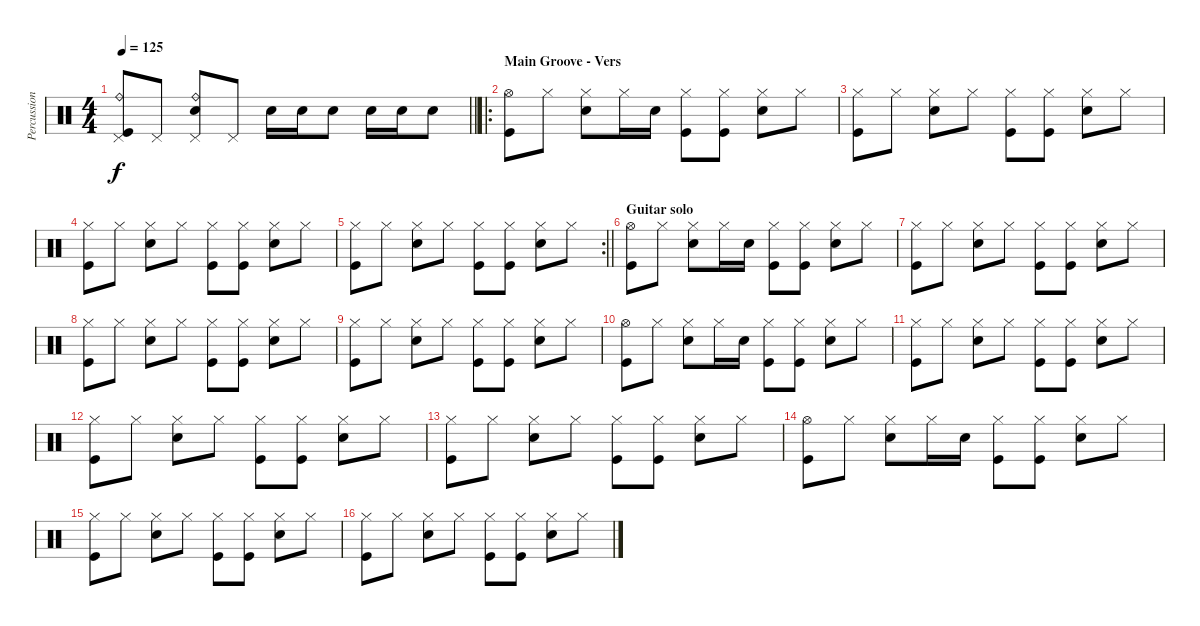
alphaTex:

\track ("Percussion" "Percussion") {instrument percussion}
\staff {score}
\articulation defaults
\ts (4 4)
\tempo 125
\clef neutral
\barLineRight lightlight
\ks c
("Ride (bell)" "Pedal Hi-Hat (hit)" "Kick (hit)").8{dy f} "Pedal Hi-Hat (hit)".8 ("Ride (bell)" "Electric Snare (hit)" "Pedal Hi-Hat (hit)").8 "Pedal Hi-Hat (hit)".8 "Electric Snare (hit)".16 "Electric Snare (hit)".16 "Electric Snare (hit)".8 "Electric Snare (hit)".16 "Electric Snare (hit)".16 "Electric Snare (hit)".8 |
\ro
\section ("" "Main Groove - Vers")
("Hi-Hat (open)" "Kick (hit)").8 "Hi-Hat (closed)".8 ("Electric Snare (hit)" "Hi-Hat (closed)").8 "Hi-Hat (closed)".16 "Electric Snare (hit)".16 ("Hi-Hat (closed)" "Kick (hit)").8 ("Hi-Hat (closed)" "Kick (hit)").8 ("Electric Snare (hit)" "Hi-Hat (closed)").8 "Hi-Hat (closed)".8 |
("Hi-Hat (closed)" "Kick (hit)").8 "Hi-Hat (closed)".8 ("Electric Snare (hit)" "Hi-Hat (closed)").8 "Hi-Hat (closed)".8 ("Hi-Hat (closed)" "Kick (hit)").8 ("Hi-Hat (closed)" "Kick (hit)").8 ("Electric Snare (hit)" "Hi-Hat (closed)").8 "Hi-Hat (closed)".8 |
("Hi-Hat (closed)" "Kick (hit)").8 "Hi-Hat (closed)".8 ("Electric Snare (hit)" "Hi-Hat (closed)").8 "Hi-Hat (closed)".8 ("Hi-Hat (closed)" "Kick (hit)").8 ("Hi-Hat (closed)" "Kick (hit)").8 ("Electric Snare (hit)" "Hi-Hat (closed)").8 "Hi-Hat (closed)".8 |
\rc 2
\barLineRight lightlight
("Hi-Hat (closed)" "Kick (hit)").8 "Hi-Hat (closed)".8 ("Electric Snare (hit)" "Hi-Hat (closed)").8 "Hi-Hat (closed)".8 ("Hi-Hat (closed)" "Kick (hit)").8 ("Hi-Hat (closed)" "Kick (hit)").8 ("Electric Snare (hit)" "Hi-Hat (closed)").8 "Hi-Hat (closed)".8 |
\section ("" "Guitar solo")
("Hi-Hat (open)" "Kick (hit)").8 "Hi-Hat (closed)".8 ("Electric Snare (hit)" "Hi-Hat (closed)").8 "Hi-Hat (closed)".16 "Electric Snare (hit)".16 ("Hi-Hat (closed)" "Kick (hit)").8 ("Hi-Hat (closed)" "Kick (hit)").8 ("Electric Snare (hit)" "Hi-Hat (closed)").8 "Hi-Hat (closed)".8 |
("Hi-Hat (closed)" "Kick (hit)").8 "Hi-Hat (closed)".8 ("Electric Snare (hit)" "Hi-Hat (closed)").8 "Hi-Hat (closed)".8 ("Hi-Hat (closed)" "Kick (hit)").8 ("Hi-Hat (closed)" "Kick (hit)").8 ("Electric Snare (hit)" "Hi-Hat (closed)").8 "Hi-Hat (closed)".8 |
("Hi-Hat (closed)" "Kick (hit)").8 "Hi-Hat (closed)".8 ("Electric Snare (hit)" "Hi-Hat (closed)").8 "Hi-Hat (closed)".8 ("Hi-Hat (closed)" "Kick (hit)").8 ("Hi-Hat (closed)" "Kick (hit)").8 ("Electric Snare (hit)" "Hi-Hat (closed)").8 "Hi-Hat (closed)".8 |
("Hi-Hat (closed)" "Kick (hit)").8 "Hi-Hat (closed)".8 ("Electric Snare (hit)" "Hi-Hat (closed)").8 "Hi-Hat (closed)".8 ("Hi-Hat (closed)" "Kick (hit)").8 ("Hi-Hat (closed)" "Kick (hit)").8 ("Electric Snare (hit)" "Hi-Hat (closed)").8 "Hi-Hat (closed)".8 |
("Hi-Hat (open)" "Kick (hit)").8 "Hi-Hat (closed)".8 ("Electric Snare (hit)" "Hi-Hat (closed)").8 "Hi-Hat (closed)".16 "Electric Snare (hit)".16 ("Hi-Hat (closed)" "Kick (hit)").8 ("Hi-Hat (closed)" "Kick (hit)").8 ("Electric Snare (hit)" "Hi-Hat (closed)").8 "Hi-Hat (closed)".8 |
("Hi-Hat (closed)" "Kick (hit)").8 "Hi-Hat (closed)".8 ("Electric Snare (hit)" "Hi-Hat (closed)").8 "Hi-Hat (closed)".8 ("Hi-Hat (closed)" "Kick (hit)").8 ("Hi-Hat (closed)" "Kick (hit)").8 ("Electric Snare (hit)" "Hi-Hat (closed)").8 "Hi-Hat (closed)".8 |
("Hi-Hat (closed)" "Kick (hit)").8 "Hi-Hat (closed)".8 ("Electric Snare (hit)" "Hi-Hat (closed)").8 "Hi-Hat (closed)".8 ("Hi-Hat (closed)" "Kick (hit)").8 ("Hi-Hat (closed)" "Kick (hit)").8 ("Electric Snare (hit)" "Hi-Hat (closed)").8 "Hi-Hat (closed)".8 |
("Hi-Hat (closed)" "Kick (hit)").8 "Hi-Hat (closed)".8 ("Electric Snare (hit)" "Hi-Hat (closed)").8 "Hi-Hat (closed)".8 ("Hi-Hat (closed)" "Kick (hit)").8 ("Hi-Hat (closed)" "Kick (hit)").8 ("Electric Snare (hit)" "Hi-Hat (closed)").8 "Hi-Hat (closed)".8 |
("Hi-Hat (open)" "Kick (hit)").8 "Hi-Hat (closed)".8 ("Electric Snare (hit)" "Hi-Hat (closed)").8 "Hi-Hat (closed)".16 "Electric Snare (hit)".16 ("Hi-Hat (closed)" "Kick (hit)").8 ("Hi-Hat (closed)" "Kick (hit)").8 ("Electric Snare (hit)" "Hi-Hat (closed)").8 "Hi-Hat (closed)".8 |
("Hi-Hat (closed)" "Kick (hit)").8 "Hi-Hat (closed)".8 ("Electric Snare (hit)" "Hi-Hat (closed)").8 "Hi-Hat (closed)".8 ("Hi-Hat (closed)" "Kick (hit)").8 ("Hi-Hat (closed)" "Kick (hit)").8 ("Electric Snare (hit)" "Hi-Hat (closed)").8 "Hi-Hat (closed)".8 |
("Hi-Hat (closed)" "Kick (hit)").8 "Hi-Hat (closed)".8 ("Electric Snare (hit)" "Hi-Hat (closed)").8 "Hi-Hat (closed)".8 ("Hi-Hat (closed)" "Kick (hit)").8 ("Hi-Hat (closed)" "Kick (hit)").8 ("Electric Snare (hit)" "Hi-Hat (closed)").8 "Hi-Hat (closed)".8
